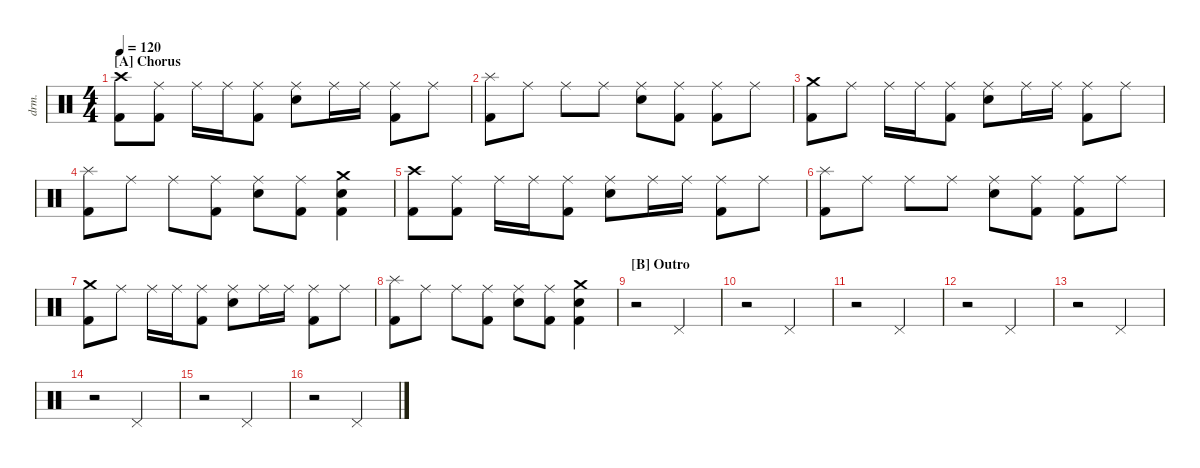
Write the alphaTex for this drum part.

\defaultSystemsLayout 4
\hideDynamics
\bracketExtendMode nobrackets
\track ("Drumkit" "drm.") {instrument percussion}
\staff {score}
\articulation defaults
\ts (4 4)
\section ("A" "Chorus")
\tempo 120
\clef neutral
\ks c
("Crash high (hit)" "Kick (hit) 2").8{dy f beam Down} ("Ride (middle)" "Kick (hit) 2").8{beam Down} "Ride (middle)".16{beam Down} "Ride (middle)".16{beam Down} ("Ride (middle)" "Kick (hit) 2").8{beam Down} ("Ride (middle)" "Snare (hit) 2").8{beam Down} "Ride (middle)".16{beam Down} "Ride (middle)".16{beam Down} ("Ride (middle)" "Kick (hit) 2").8{beam Down} "Ride (middle)".8{beam Down} |
("Kick (hit) 2" "Splash (hit)").8{beam Down} "Ride (middle)".8{beam Down} "Ride (middle)".8{beam Down} "Ride (middle)".8{beam Down} ("Ride (middle)" "Snare (hit) 2").8{beam Down} ("Ride (middle)" "Kick (hit) 2").8{beam Down} ("Ride (middle)" "Kick (hit) 2").8{beam Down} "Ride (middle)".8{beam Down} |
("Crash medium (hit)" "Kick (hit) 2").8{beam Down} "Ride (middle)".8{beam Down} "Ride (middle)".16{beam Down} "Ride (middle)".16{beam Down} ("Ride (middle)" "Kick (hit) 2").8{beam Down} ("Ride (middle)" "Snare (hit) 2").8{beam Down} "Ride (middle)".16{beam Down} "Ride (middle)".16{beam Down} ("Ride (middle)" "Kick (hit) 2").8{beam Down} "Ride (middle)".8{beam Down} |
("Kick (hit) 2" "Splash (hit)").8{beam Down} "Ride (middle)".8{beam Down} "Ride (middle)".8{beam Down} ("Ride (middle)" "Kick (hit) 2").8{beam Down} ("Ride (middle)" "Snare (hit) 2").8{beam Down} ("Ride (middle)" "Kick (hit) 2").8{beam Down} ("Crash medium (hit)" "Kick (hit) 2" "Snare (hit) 2").4{beam Down} |
("Crash high (hit)" "Kick (hit) 2").8{beam Down} ("Ride (middle)" "Kick (hit) 2").8{beam Down} "Ride (middle)".16{beam Down} "Ride (middle)".16{beam Down} ("Ride (middle)" "Kick (hit) 2").8{beam Down} ("Ride (middle)" "Snare (hit) 2").8{beam Down} "Ride (middle)".16{beam Down} "Ride (middle)".16{beam Down} ("Ride (middle)" "Kick (hit) 2").8{beam Down} "Ride (middle)".8{beam Down} |
("Kick (hit) 2" "Splash (hit)").8{beam Down} "Ride (middle)".8{beam Down} "Ride (middle)".8{beam Down} "Ride (middle)".8{beam Down} ("Ride (middle)" "Snare (hit) 2").8{beam Down} ("Ride (middle)" "Kick (hit) 2").8{beam Down} ("Ride (middle)" "Kick (hit) 2").8{beam Down} "Ride (middle)".8{beam Down} |
("Crash medium (hit)" "Kick (hit) 2").8{beam Down} "Ride (middle)".8{beam Down} "Ride (middle)".16{beam Down} "Ride (middle)".16{beam Down} ("Ride (middle)" "Kick (hit) 2").8{beam Down} ("Ride (middle)" "Snare (hit) 2").8{beam Down} "Ride (middle)".16{beam Down} "Ride (middle)".16{beam Down} ("Ride (middle)" "Kick (hit) 2").8{beam Down} "Ride (middle)".8{beam Down} |
("Kick (hit) 2" "Splash (hit)").8{beam Down} "Ride (middle)".8{beam Down} "Ride (middle)".8{beam Down} ("Ride (middle)" "Kick (hit) 2").8{beam Down} ("Ride (middle)" "Snare (hit) 2").8{beam Down} ("Ride (middle)" "Kick (hit) 2").8{beam Down} ("Crash medium (hit)" "Kick (hit) 2" "Snare (hit) 2").4{beam Down} |
\section ("B" "Outro")
r.2{beam Down} "Pedal Hi-Hat (hit)".2{dy mf beam Up} |
r.2{beam Down} "Pedal Hi-Hat (hit)".2{beam Up} |
r.2{beam Down} "Pedal Hi-Hat (hit)".2{beam Up} |
r.2{beam Down} "Pedal Hi-Hat (hit)".2{beam Up} |
r.2 "Pedal Hi-Hat (hit)".2 |
r.2 "Pedal Hi-Hat (hit)".2 |
r.2 "Pedal Hi-Hat (hit)".2 |
r.2 "Pedal Hi-Hat (hit)".2
